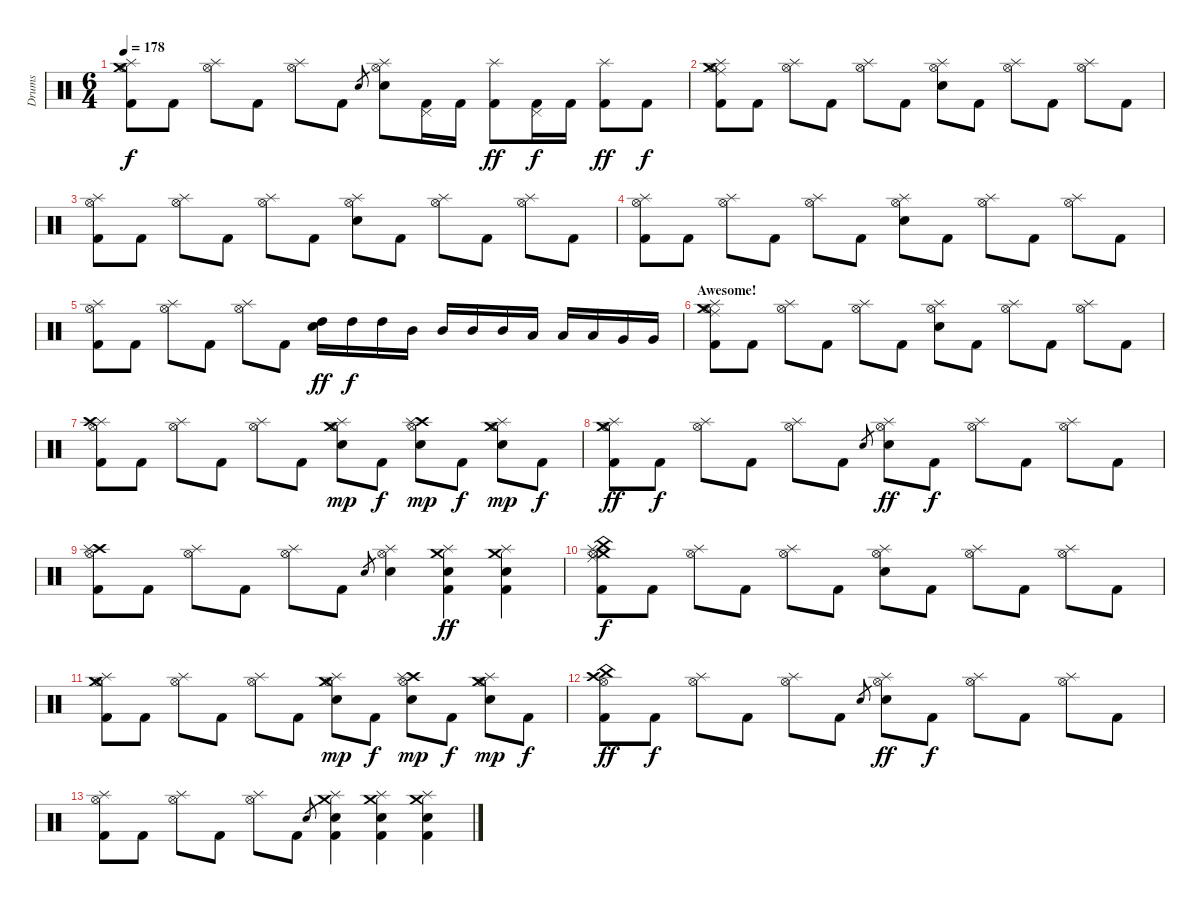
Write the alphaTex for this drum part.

\track ("Drums" "Drums") {instrument percussion}
\staff {score}
\articulation defaults
\ts (6 4)
\tempo 178
\clef neutral
\ks c
("Hi-Hat (open)" "Splash (hit)" "Crash medium (hit)" "Kick (hit) 2").8{dy f} "Kick (hit) 2".8 ("Hi-Hat (open)" "Splash (hit)").8 "Kick (hit) 2".8 ("Hi-Hat (open)" "Splash (hit)").8 "Kick (hit) 2".8 "Electric Snare (hit)".8{gr} ("Hi-Hat (open)" "Splash (hit)" "Electric Snare (hit)").8 ("Pedal Hi-Hat (hit)" "Kick (hit) 2").16 "Kick (hit) 2".16 ("Splash (hit)" "Kick (hit) 2").8{dy ff} ("Pedal Hi-Hat (hit)" "Kick (hit) 2").16{dy f} "Kick (hit) 2".16 ("Splash (hit)" "Kick (hit) 2").8{dy ff} "Kick (hit) 2".8{dy f} |
("Crash medium (hit)" "Hi-Hat (open)" "Ride (middle)" "Splash (hit)" "Kick (hit) 2").8 "Kick (hit) 2".8 ("Hi-Hat (open)" "Splash (hit)").8 "Kick (hit) 2".8 ("Hi-Hat (open)" "Splash (hit)").8 "Kick (hit) 2".8 ("Hi-Hat (open)" "Splash (hit)" "Electric Snare (hit)").8 "Kick (hit) 2".8 ("Hi-Hat (open)" "Splash (hit)").8 "Kick (hit) 2".8 ("Hi-Hat (open)" "Splash (hit)").8 "Kick (hit) 2".8 |
("Hi-Hat (open)" "Splash (hit)" "Kick (hit) 2").8 "Kick (hit) 2".8 ("Hi-Hat (open)" "Splash (hit)").8 "Kick (hit) 2".8 ("Hi-Hat (open)" "Splash (hit)").8 "Kick (hit) 2".8 ("Hi-Hat (open)" "Splash (hit)" "Electric Snare (hit)").8 "Kick (hit) 2".8 ("Hi-Hat (open)" "Splash (hit)").8 "Kick (hit) 2".8 ("Hi-Hat (open)" "Splash (hit)").8 "Kick (hit) 2".8 |
("Hi-Hat (open)" "Splash (hit)" "Kick (hit) 2").8 "Kick (hit) 2".8 ("Hi-Hat (open)" "Splash (hit)").8 "Kick (hit) 2".8 ("Hi-Hat (open)" "Splash (hit)").8 "Kick (hit) 2".8 ("Hi-Hat (open)" "Splash (hit)" "Electric Snare (hit)").8 "Kick (hit) 2".8 ("Hi-Hat (open)" "Splash (hit)").8 "Kick (hit) 2".8 ("Hi-Hat (open)" "Splash (hit)").8 "Kick (hit) 2".8 |
("Hi-Hat (open)" "Splash (hit)" "Kick (hit) 2").8 "Kick (hit) 2".8 ("Hi-Hat (open)" "Splash (hit)").8 "Kick (hit) 2".8 ("Hi-Hat (open)" "Splash (hit)").8 "Kick (hit) 2".8 ("Electric Snare (hit)" "High Tom (hit)").16{dy ff} "High Tom (hit)".16{dy f} "High Tom (hit)".16 "Mid Tom (hit)".16 "Mid Tom (hit)".16 "Mid Tom (hit)".16 "Mid Tom (hit)".16 "Low Tom (hit)".16 "Low Tom (hit)".16 "Low Tom (hit)".16 "Very Low Tom (hit)".16 "Very Low Tom (hit)".16 |
\section ("" "Awesome!")
("Crash medium (hit)" "Hi-Hat (open)" "Ride (middle)" "Splash (hit)" "Kick (hit) 2").8 "Kick (hit) 2".8 ("Hi-Hat (open)" "Splash (hit)").8 "Kick (hit) 2".8 ("Hi-Hat (open)" "Splash (hit)").8 "Kick (hit) 2".8 ("Hi-Hat (open)" "Splash (hit)" "Electric Snare (hit)").8 "Kick (hit) 2".8 ("Hi-Hat (open)" "Splash (hit)").8 "Kick (hit) 2".8 ("Hi-Hat (open)" "Splash (hit)").8 "Kick (hit) 2".8 |
("Hi-Hat (open)" "Splash (hit)" "Crash high (hit)" "Kick (hit) 2").8 "Kick (hit) 2".8 ("Hi-Hat (open)" "Splash (hit)").8 "Kick (hit) 2".8 ("Hi-Hat (open)" "Splash (hit)").8 "Kick (hit) 2".8 ("Crash medium (hit)" "Hi-Hat (open)" "Splash (hit)" "Electric Snare (hit)").8{dy mp} "Kick (hit) 2".8{dy f} ("Crash high (hit)" "Hi-Hat (open)" "Splash (hit)" "Electric Snare (hit)").8{dy mp} "Kick (hit) 2".8{dy f} ("Crash medium (hit)" "Hi-Hat (open)" "Splash (hit)" "Electric Snare (hit)").8{dy mp} "Kick (hit) 2".8{dy f} |
("Crash medium (hit)" "Hi-Hat (open)" "Splash (hit)" "Kick (hit) 2").8{dy ff} "Kick (hit) 2".8{dy f} ("Hi-Hat (open)" "Splash (hit)").8 "Kick (hit) 2".8 ("Hi-Hat (open)" "Splash (hit)").8 "Kick (hit) 2".8 "Electric Snare (hit)".8{gr} ("Hi-Hat (open)" "Splash (hit)" "Electric Snare (hit)").8{dy ff} "Kick (hit) 2".8{dy f} ("Hi-Hat (open)" "Splash (hit)").8 "Kick (hit) 2".8 ("Hi-Hat (open)" "Splash (hit)").8 "Kick (hit) 2".8 |
("Crash high (hit)" "Hi-Hat (open)" "Splash (hit)" "Kick (hit) 2").8 "Kick (hit) 2".8 ("Hi-Hat (open)" "Splash (hit)").8 "Kick (hit) 2".8 ("Hi-Hat (open)" "Splash (hit)").8 "Kick (hit) 2".8 "Electric Snare (hit)".8{gr} ("Hi-Hat (open)" "Splash (hit)" "Electric Snare (hit)").4 ("Crash medium (hit)" "Splash (hit)" "Electric Snare (hit)" "Kick (hit) 2").4{dy ff} ("Crash medium (hit)" "Splash (hit)" "Electric Snare (hit)" "Kick (hit) 2").4 |
("Crash medium (hit)" "Hi-Hat (open)" "Ride (middle)" "Splash (hit)" "China (hit)" "Kick (hit) 2").8{dy f} "Kick (hit) 2".8 ("Hi-Hat (open)" "Splash (hit)").8 "Kick (hit) 2".8 ("Hi-Hat (open)" "Splash (hit)").8 "Kick (hit) 2".8 ("Hi-Hat (open)" "Splash (hit)" "Electric Snare (hit)").8 "Kick (hit) 2".8 ("Hi-Hat (open)" "Splash (hit)").8 "Kick (hit) 2".8 ("Hi-Hat (open)" "Splash (hit)").8 "Kick (hit) 2".8 |
("Hi-Hat (open)" "Splash (hit)" "Crash medium (hit)" "Kick (hit) 2").8 "Kick (hit) 2".8 ("Hi-Hat (open)" "Splash (hit)").8 "Kick (hit) 2".8 ("Hi-Hat (open)" "Splash (hit)").8 "Kick (hit) 2".8 ("Crash medium (hit)" "Hi-Hat (open)" "Splash (hit)" "Electric Snare (hit)").8{dy mp} "Kick (hit) 2".8{dy f} ("Crash high (hit)" "Hi-Hat (open)" "Splash (hit)" "Electric Snare (hit)").8{dy mp} "Kick (hit) 2".8{dy f} ("Crash medium (hit)" "Hi-Hat (open)" "Splash (hit)" "Electric Snare (hit)").8{dy mp} "Kick (hit) 2".8{dy f} |
("Hi-Hat (open)" "Crash high (hit)" "China (hit)" "Kick (hit) 2").8{dy ff} "Kick (hit) 2".8{dy f} ("Hi-Hat (open)" "Splash (hit)").8 "Kick (hit) 2".8 ("Hi-Hat (open)" "Splash (hit)").8 "Kick (hit) 2".8 "Electric Snare (hit)".8{gr} ("Hi-Hat (open)" "Splash (hit)" "Electric Snare (hit)").8{dy ff} "Kick (hit) 2".8{dy f} ("Hi-Hat (open)" "Splash (hit)").8 "Kick (hit) 2".8 ("Hi-Hat (open)" "Splash (hit)").8 "Kick (hit) 2".8 |
("Hi-Hat (open)" "Splash (hit)" "Kick (hit) 2").8 "Kick (hit) 2".8 ("Hi-Hat (open)" "Splash (hit)").8 "Kick (hit) 2".8 ("Hi-Hat (open)" "Splash (hit)").8 "Kick (hit) 2".8 "Electric Snare (hit)".8{gr} ("Crash medium (hit)" "Splash (hit)" "Electric Snare (hit)" "Kick (hit) 2").4 ("Crash medium (hit)" "Splash (hit)" "Electric Snare (hit)" "Kick (hit) 2").4 ("Crash medium (hit)" "Splash (hit)" "Electric Snare (hit)" "Kick (hit) 2").4
